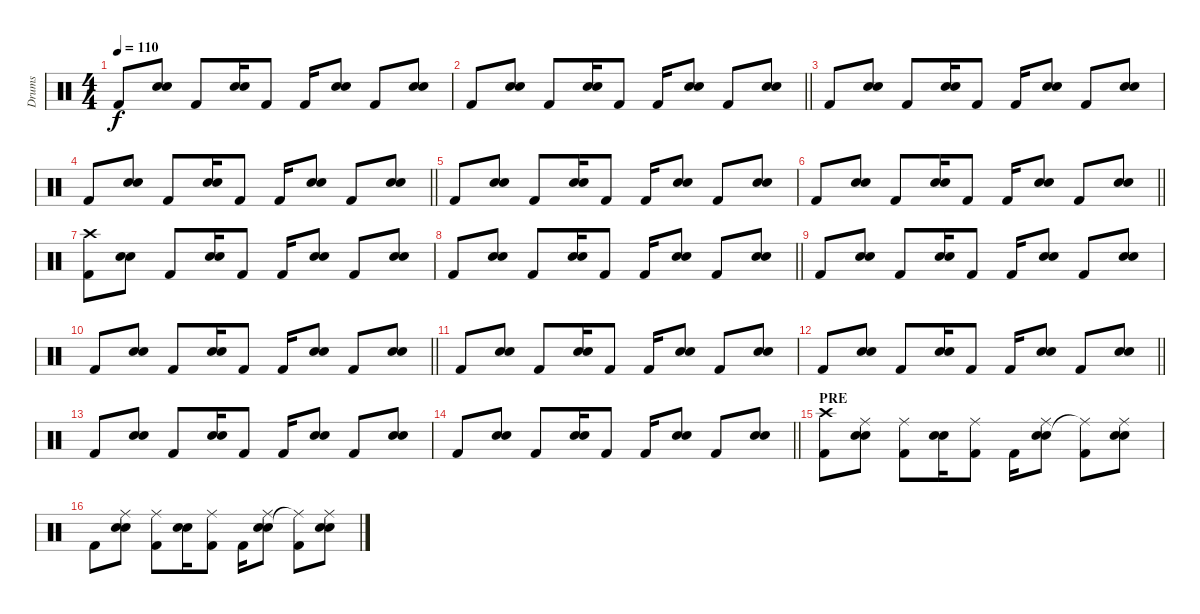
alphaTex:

\track ("Drums" "Drums") {instrument percussion}
\staff {score}
\articulation defaults
\ts (4 4)
\tempo 110
\clef neutral
\ks c "Kick (hit) 2".8{dy f}
("Snare (hit) 2" "Snare (hit) 2").8 "Kick (hit) 2".8 ("Snare (hit) 2" "Snare (hit) 2").16 "Kick (hit) 2".8 "Kick (hit) 2".16 ("Snare (hit) 2" "Snare (hit) 2").8 "Kick (hit) 2".8 ("Snare (hit) 2" "Snare (hit) 2").8 |
\barLineRight lightlight "Kick (hit) 2".8
("Snare (hit) 2" "Snare (hit) 2").8 "Kick (hit) 2".8 ("Snare (hit) 2" "Snare (hit) 2").16 "Kick (hit) 2".8 "Kick (hit) 2".16 ("Snare (hit) 2" "Snare (hit) 2").8 "Kick (hit) 2".8 ("Snare (hit) 2" "Snare (hit) 2").8 |
"Kick (hit) 2".8 ("Snare (hit) 2" "Snare (hit) 2").8 "Kick (hit) 2".8 ("Snare (hit) 2" "Snare (hit) 2").16 "Kick (hit) 2".8 "Kick (hit) 2".16 ("Snare (hit) 2" "Snare (hit) 2").8 "Kick (hit) 2".8 ("Snare (hit) 2" "Snare (hit) 2").8 |
\barLineRight lightlight "Kick (hit) 2".8
("Snare (hit) 2" "Snare (hit) 2").8 "Kick (hit) 2".8 ("Snare (hit) 2" "Snare (hit) 2").16 "Kick (hit) 2".8 "Kick (hit) 2".16 ("Snare (hit) 2" "Snare (hit) 2").8 "Kick (hit) 2".8 ("Snare (hit) 2" "Snare (hit) 2").8 |
"Kick (hit) 2".8 ("Snare (hit) 2" "Snare (hit) 2").8 "Kick (hit) 2".8 ("Snare (hit) 2" "Snare (hit) 2").16 "Kick (hit) 2".8 "Kick (hit) 2".16 ("Snare (hit) 2" "Snare (hit) 2").8 "Kick (hit) 2".8 ("Snare (hit) 2" "Snare (hit) 2").8 |
\barLineRight lightlight "Kick (hit) 2".8
("Snare (hit) 2" "Snare (hit) 2").8 "Kick (hit) 2".8 ("Snare (hit) 2" "Snare (hit) 2").16 "Kick (hit) 2".8 "Kick (hit) 2".16 ("Snare (hit) 2" "Snare (hit) 2").8 "Kick (hit) 2".8 ("Snare (hit) 2" "Snare (hit) 2").8 |
\section ("" "")
("Kick (hit) 2" "Crash high (hit)").8 ("Snare (hit) 2" "Snare (hit) 2").8 "Kick (hit) 2".8 ("Snare (hit) 2" "Snare (hit) 2").16 "Kick (hit) 2".8 "Kick (hit) 2".16 ("Snare (hit) 2" "Snare (hit) 2").8 "Kick (hit) 2".8 ("Snare (hit) 2" "Snare (hit) 2").8 |
\barLineRight lightlight "Kick (hit) 2".8
("Snare (hit) 2" "Snare (hit) 2").8 "Kick (hit) 2".8 ("Snare (hit) 2" "Snare (hit) 2").16 "Kick (hit) 2".8 "Kick (hit) 2".16 ("Snare (hit) 2" "Snare (hit) 2").8 "Kick (hit) 2".8 ("Snare (hit) 2" "Snare (hit) 2").8 |
"Kick (hit) 2".8 ("Snare (hit) 2" "Snare (hit) 2").8 "Kick (hit) 2".8 ("Snare (hit) 2" "Snare (hit) 2").16 "Kick (hit) 2".8 "Kick (hit) 2".16 ("Snare (hit) 2" "Snare (hit) 2").8 "Kick (hit) 2".8 ("Snare (hit) 2" "Snare (hit) 2").8 |
\barLineRight lightlight "Kick (hit) 2".8
("Snare (hit) 2" "Snare (hit) 2").8 "Kick (hit) 2".8 ("Snare (hit) 2" "Snare (hit) 2").16 "Kick (hit) 2".8 "Kick (hit) 2".16 ("Snare (hit) 2" "Snare (hit) 2").8 "Kick (hit) 2".8 ("Snare (hit) 2" "Snare (hit) 2").8 |
"Kick (hit) 2".8 ("Snare (hit) 2" "Snare (hit) 2").8 "Kick (hit) 2".8 ("Snare (hit) 2" "Snare (hit) 2").16 "Kick (hit) 2".8 "Kick (hit) 2".16 ("Snare (hit) 2" "Snare (hit) 2").8 "Kick (hit) 2".8 ("Snare (hit) 2" "Snare (hit) 2").8 |
\barLineRight lightlight "Kick (hit) 2".8
("Snare (hit) 2" "Snare (hit) 2").8 "Kick (hit) 2".8 ("Snare (hit) 2" "Snare (hit) 2").16 "Kick (hit) 2".8 "Kick (hit) 2".16 ("Snare (hit) 2" "Snare (hit) 2").8 "Kick (hit) 2".8 ("Snare (hit) 2" "Snare (hit) 2").8 |
"Kick (hit) 2".8 ("Snare (hit) 2" "Snare (hit) 2").8 "Kick (hit) 2".8 ("Snare (hit) 2" "Snare (hit) 2").16 "Kick (hit) 2".8 "Kick (hit) 2".16 ("Snare (hit) 2" "Snare (hit) 2").8 "Kick (hit) 2".8 ("Snare (hit) 2" "Snare (hit) 2").8 |
\barLineRight lightlight "Kick (hit) 2".8
("Snare (hit) 2" "Snare (hit) 2").8 "Kick (hit) 2".8 ("Snare (hit) 2" "Snare (hit) 2").16 "Kick (hit) 2".8 "Kick (hit) 2".16 ("Snare (hit) 2" "Snare (hit) 2").8 "Kick (hit) 2".8 ("Snare (hit) 2" "Snare (hit) 2").8 |
\section ("" "PRE")
("Kick (hit) 2" "Crash high (hit)").8{volume 15} ("Snare (hit) 2" "Snare (hit) 2" "Ride (middle)").8 ("Kick (hit) 2" "Ride (middle)").8 ("Snare (hit) 2" "Snare (hit) 2").16 ("Kick (hit) 2" "Ride (middle)").8 "Kick (hit) 2".16 ("Snare (hit) 2" "Snare (hit) 2" "Ride (middle)").8 ("Kick (hit) 2" "Ride (middle)"{t}).8 ("Snare (hit) 2" "Snare (hit) 2" "Ride (middle)").8 |
"Kick (hit) 2".8 ("Snare (hit) 2" "Snare (hit) 2" "Ride (middle)").8 ("Kick (hit) 2" "Ride (middle)").8 ("Snare (hit) 2" "Snare (hit) 2").16 ("Kick (hit) 2" "Ride (middle)").8 "Kick (hit) 2".16 ("Snare (hit) 2" "Snare (hit) 2" "Ride (middle)").8 ("Kick (hit) 2" "Ride (middle)"{t}).8 ("Snare (hit) 2" "Snare (hit) 2" "Ride (middle)").8
